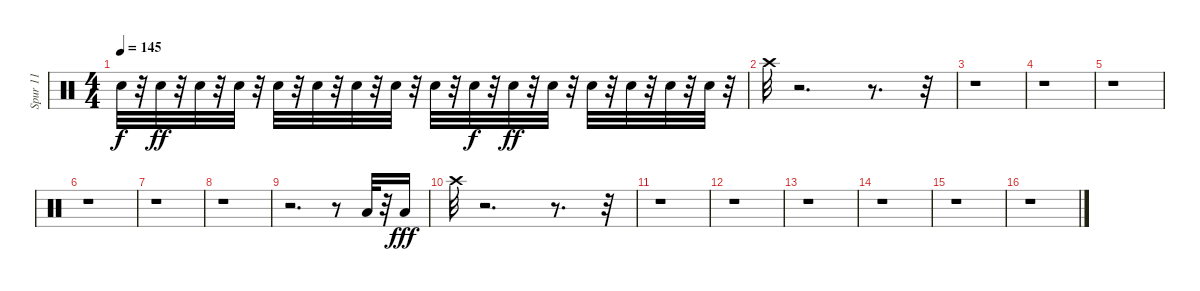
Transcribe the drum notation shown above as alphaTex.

\track ("Spur 11" "Spur 11") {instrument percussion}
\staff {score}
\articulation defaults
\ts (4 4)
\tempo 145
\clef neutral
\ks c "Electric Snare (hit)".32{dy f}
r.32 "Electric Snare (hit)".32{dy ff} r.32 "Electric Snare (hit)".32 r.32 "Electric Snare (hit)".32 r.32 "Electric Snare (hit)".32 r.32 "Electric Snare (hit)".32 r.32 "Electric Snare (hit)".32 r.32 "Electric Snare (hit)".32 r.32 "Electric Snare (hit)".32 r.32 "Electric Snare (hit)".32{dy f} r.32 "Electric Snare (hit)".32{dy ff} r.32 "Electric Snare (hit)".32 r.32 "Electric Snare (hit)".32 r.32 "Electric Snare (hit)".32 r.32 "Electric Snare (hit)".32 r.32 "Electric Snare (hit)".32 r.32 |
"Crash high (hit)".32 r.2{d} r.8{d} r.32 |
r.1 |
r.1 |
r.1 |
r.1 |
r.1 |
r.1 |
r.2{d} r.8 "Low Tom (hit)".32 r.32 "Low Tom (hit)".16{dy fff} |
"Crash high (hit)".32 r.2{d} r.8{d} r.32 |
r.1 |
r.1 |
r.1 |
r.1 |
r.1 |
r.1
